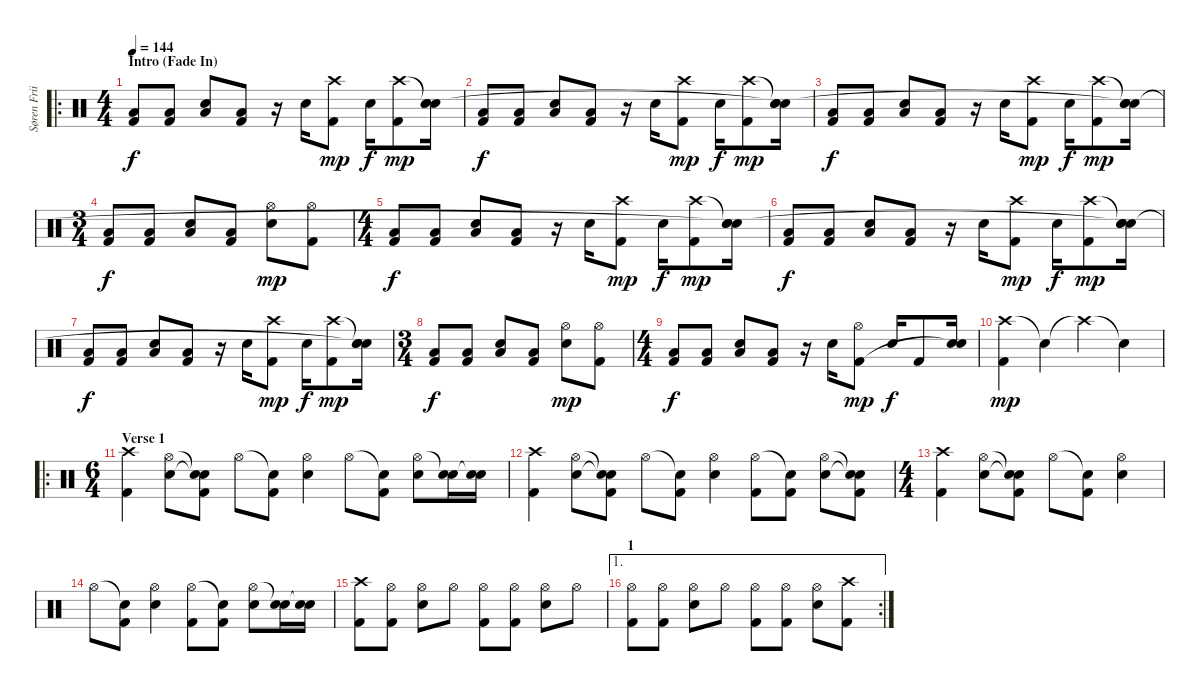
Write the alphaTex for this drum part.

\track ("Søren Friis" "Søren Frii") {instrument percussion}
\staff {score}
\articulation defaults
\ro
\ts (4 4)
\section ("" "Intro (Fade In)")
\tempo 144
\clef neutral
\ks c
("Low Tom (hit)" "Kick (hit) 2").8{dy f volume 4} ("Low Tom (hit)" "Kick (hit) 2").8{volume 6} ("Snare (hit) 2" "Low Tom (hit)").8 ("Low Tom (hit)" "Kick (hit) 2").8 r.16 "Snare (hit) 2".16 ("Crash high (hit)" "Kick (hit) 2").8{dy mp} "Snare (hit) 2".16{dy f} ("Crash high (hit)" "Kick (hit) 2").8{dy mp} ("Snare (hit)"{t} "Snare (hit) 2" "Snare (hit)").16 |
("Low Tom (hit)" "Kick (hit) 2").8{dy f} ("Low Tom (hit)" "Kick (hit) 2").8 ("Snare (hit) 2" "Low Tom (hit)").8 ("Low Tom (hit)" "Kick (hit) 2").8 r.16 "Snare (hit) 2".16 ("Crash high (hit)" "Kick (hit) 2").8{dy mp} "Snare (hit) 2".16{dy f} ("Crash high (hit)" "Kick (hit) 2").8{dy mp} ("Snare (hit)"{t} "Snare (hit) 2" "Snare (hit)"{t}).16 |
("Low Tom (hit)" "Kick (hit) 2").8{dy f volume 8} ("Low Tom (hit)" "Kick (hit) 2").8 ("Snare (hit) 2" "Low Tom (hit)").8 ("Low Tom (hit)" "Kick (hit) 2").8 r.16 "Snare (hit) 2".16 ("Crash high (hit)" "Kick (hit) 2").8{dy mp} "Snare (hit) 2".16{dy f} ("Crash high (hit)" "Kick (hit) 2").8{dy mp} ("Snare (hit)"{t} "Snare (hit) 2" "Snare (hit)"{t}).16 |
\ts (3 4)
("Low Tom (hit)" "Kick (hit) 2").8{dy f} ("Low Tom (hit)" "Kick (hit) 2").8 ("Snare (hit) 2" "Low Tom (hit)").8 ("Low Tom (hit)" "Kick (hit) 2").8 ("Hi-Hat (open)" "Snare (hit) 2").8{dy mp} ("Hi-Hat (open)" "Kick (hit) 2").8 |
\ts (4 4)
("Low Tom (hit)" "Kick (hit) 2").8{dy f volume 10} ("Low Tom (hit)" "Kick (hit) 2").8 ("Snare (hit) 2" "Low Tom (hit)").8 ("Low Tom (hit)" "Kick (hit) 2").8 r.16 "Snare (hit) 2".16 ("Crash high (hit)" "Kick (hit) 2").8{dy mp} "Snare (hit) 2".16{dy f} ("Crash high (hit)" "Kick (hit) 2").8{dy mp} ("Snare (hit)"{t} "Snare (hit) 2" "Snare (hit)"{t}).16 |
("Low Tom (hit)" "Kick (hit) 2").8{dy f} ("Low Tom (hit)" "Kick (hit) 2").8 ("Snare (hit) 2" "Low Tom (hit)").8 ("Low Tom (hit)" "Kick (hit) 2").8 r.16 "Snare (hit) 2".16 ("Crash high (hit)" "Kick (hit) 2").8{dy mp} "Snare (hit) 2".16{dy f} ("Crash high (hit)" "Kick (hit) 2").8{dy mp} ("Snare (hit)"{t} "Snare (hit) 2" "Snare (hit)"{t}).16 |
("Low Tom (hit)" "Kick (hit) 2").8{dy f volume 16} ("Low Tom (hit)" "Kick (hit) 2").8 ("Snare (hit) 2" "Low Tom (hit)").8 ("Low Tom (hit)" "Kick (hit) 2").8 r.16 "Snare (hit) 2".16 ("Crash high (hit)" "Kick (hit) 2").8{dy mp} "Snare (hit) 2".16{dy f} ("Crash high (hit)" "Kick (hit) 2").8{dy mp} ("Snare (hit)"{t} "Snare (hit) 2" "Snare (hit)"{t}).16 |
\ts (3 4)
("Low Tom (hit)" "Kick (hit) 2").8{dy f} ("Low Tom (hit)" "Kick (hit) 2").8 ("Snare (hit) 2" "Low Tom (hit)").8 ("Low Tom (hit)" "Kick (hit) 2").8 ("Hi-Hat (open)" "Snare (hit) 2").8{dy mp} ("Hi-Hat (open)" "Kick (hit) 2").8 |
\ts (4 4)
("Low Tom (hit)" "Kick (hit) 2").8{dy f} ("Low Tom (hit)" "Kick (hit) 2").8 ("Snare (hit) 2" "Low Tom (hit)").8 ("Low Tom (hit)" "Kick (hit) 2").8 r.16 "Snare (hit) 2".16 ("Hi-Hat (open)" "Kick (hit) 2").8{dy mp} "Snare (hit) 2".16{dy f} "Kick (hit) 2".8 ("Snare (hit) 2" "Snare (hit)"{t}).16 |
("Crash high (hit)" "Kick (hit) 2").4{dy mp} "Snare (hit)"{t}.4 "Crash high (hit)"{t}.4 "Snare (hit)"{t}.4 |
\ro
\ts (6 4)
\section ("" "Verse 1")
("Crash high (hit)" "Kick (hit) 2").4 ("Hi-Hat (open)" "Snare (hit) 2").8 ("Snare (hit)"{t} "Snare (hit)"{t} "Kick (hit) 2").8 "Hi-Hat (open)".8 ("Snare (hit)"{t} "Kick (hit) 2").8 ("Hi-Hat (open)" "Snare (hit) 2").4 "Hi-Hat (open)".8 ("Snare (hit)"{t} "Kick (hit) 2").8 ("Hi-Hat (open)" "Snare (hit) 2").8 ("Snare (hit)"{t} "Snare (hit) 2").16 ("Snare (hit)"{t} "Snare (hit) 2").16 |
("Crash high (hit)" "Kick (hit) 2").4 ("Hi-Hat (open)" "Snare (hit) 2").8 ("Snare (hit)"{t} "Snare (hit)"{t} "Kick (hit) 2").8 "Hi-Hat (open)".8 ("Snare (hit)"{t} "Kick (hit) 2").8 ("Hi-Hat (open)" "Snare (hit) 2").4 ("Hi-Hat (open)" "Kick (hit) 2").8 ("Snare (hit)"{t} "Kick (hit) 2").8 ("Hi-Hat (open)" "Snare (hit) 2").8 ("Snare (hit)"{t} "Snare (hit) 2"{t} "Kick (hit) 2").8 |
\ts (4 4)
("Crash high (hit)" "Kick (hit) 2").4 ("Hi-Hat (open)" "Snare (hit) 2").8 ("Snare (hit)"{t} "Snare (hit)"{t} "Kick (hit) 2").8 "Hi-Hat (open)".8 ("Snare (hit)"{t} "Kick (hit) 2").8 ("Hi-Hat (open)" "Snare (hit) 2").4 |
"Hi-Hat (open)".8 ("Snare (hit)"{t} "Kick (hit) 2").8 ("Hi-Hat (open)" "Snare (hit) 2").4 ("Hi-Hat (open)" "Kick (hit) 2").8 ("Snare (hit)"{t} "Kick (hit) 2").8 ("Hi-Hat (open)" "Snare (hit) 2").8 ("Snare (hit)"{t} "Snare (hit) 2").16 ("Snare (hit)"{t} "Snare (hit) 2").16 |
("Crash high (hit)" "Kick (hit) 2").8 ("Hi-Hat (open)" "Kick (hit) 2").8 ("Hi-Hat (open)" "Snare (hit) 2").8 "Hi-Hat (open)".8 ("Hi-Hat (open)" "Kick (hit) 2").8 ("Hi-Hat (open)" "Kick (hit) 2").8 ("Hi-Hat (open)" "Snare (hit) 2").8 "Hi-Hat (open)".8 |
\ae 1
\rc 2
\section ("" "1")
("Hi-Hat (open)" "Kick (hit) 2").8 ("Hi-Hat (open)" "Kick (hit) 2").8 ("Hi-Hat (open)" "Snare (hit) 2").8 "Hi-Hat (open)".8 ("Hi-Hat (open)" "Kick (hit) 2").8 ("Hi-Hat (open)" "Kick (hit) 2").8 ("Hi-Hat (open)" "Snare (hit) 2").8 ("Crash high (hit)" "Kick (hit) 2").8
